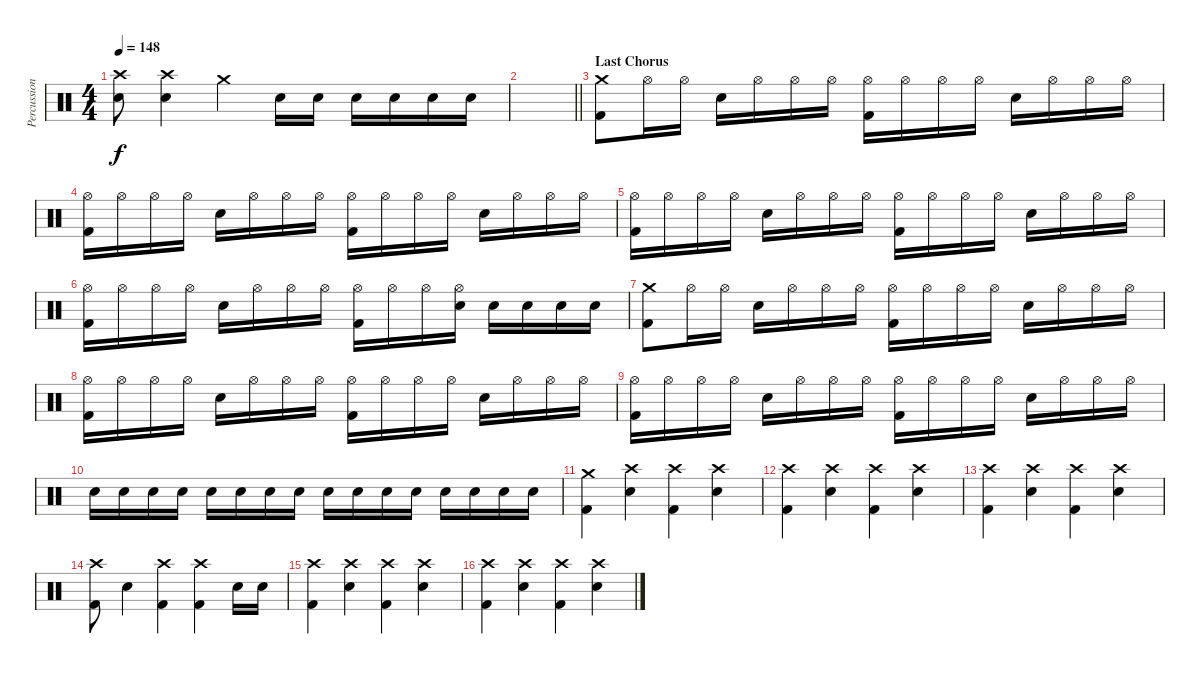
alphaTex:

\track ("Percussion" "Percussion") {instrument percussion}
\staff {score}
\articulation defaults
\ts (4 4)
\tempo 148
\clef neutral
\ks c
("Crash high (hit)" "Snare (hit) 2").8{dy f} ("Crash high (hit)" "Snare (hit) 2").4 "Crash medium (hit)".4 "Snare (hit) 2".16 "Snare (hit) 2".16 "Snare (hit) 2".16 "Snare (hit) 2".16 "Snare (hit) 2".16 "Snare (hit) 2".16 |
\barLineRight lightlight
|
\section ("" "Last Chorus")
("Crash medium (hit)" "Kick (hit) 2").8 "Hi-Hat (open)".16 "Hi-Hat (open)".16 "Snare (hit) 2".16 "Hi-Hat (open)".16 "Hi-Hat (open)".16 "Hi-Hat (open)".16 ("Hi-Hat (open)" "Kick (hit) 2").16 "Hi-Hat (open)".16 "Hi-Hat (open)".16 "Hi-Hat (open)".16 "Snare (hit) 2".16 "Hi-Hat (open)".16 "Hi-Hat (open)".16 "Hi-Hat (open)".16 |
("Hi-Hat (open)" "Kick (hit) 2").16 "Hi-Hat (open)".16 "Hi-Hat (open)".16 "Hi-Hat (open)".16 "Snare (hit) 2".16 "Hi-Hat (open)".16 "Hi-Hat (open)".16 "Hi-Hat (open)".16 ("Hi-Hat (open)" "Kick (hit) 2").16 "Hi-Hat (open)".16 "Hi-Hat (open)".16 "Hi-Hat (open)".16 "Snare (hit) 2".16 "Hi-Hat (open)".16 "Hi-Hat (open)".16 "Hi-Hat (open)".16 |
("Hi-Hat (open)" "Kick (hit) 2").16 "Hi-Hat (open)".16 "Hi-Hat (open)".16 "Hi-Hat (open)".16 "Snare (hit) 2".16 "Hi-Hat (open)".16 "Hi-Hat (open)".16 "Hi-Hat (open)".16 ("Hi-Hat (open)" "Kick (hit) 2").16 "Hi-Hat (open)".16 "Hi-Hat (open)".16 "Hi-Hat (open)".16 "Snare (hit) 2".16 "Hi-Hat (open)".16 "Hi-Hat (open)".16 "Hi-Hat (open)".16 |
("Hi-Hat (open)" "Kick (hit) 2").16 "Hi-Hat (open)".16 "Hi-Hat (open)".16 "Hi-Hat (open)".16 "Snare (hit) 2".16 "Hi-Hat (open)".16 "Hi-Hat (open)".16 "Hi-Hat (open)".16 ("Hi-Hat (open)" "Kick (hit) 2").16 "Hi-Hat (open)".16 "Hi-Hat (open)".16 ("Hi-Hat (open)" "Snare (hit) 2").16 "Snare (hit) 2".16 "Snare (hit) 2".16 "Snare (hit) 2".16 "Snare (hit) 2".16 |
("Crash medium (hit)" "Kick (hit) 2").8 "Hi-Hat (open)".16 "Hi-Hat (open)".16 "Snare (hit) 2".16 "Hi-Hat (open)".16 "Hi-Hat (open)".16 "Hi-Hat (open)".16 ("Hi-Hat (open)" "Kick (hit) 2").16 "Hi-Hat (open)".16 "Hi-Hat (open)".16 "Hi-Hat (open)".16 "Snare (hit) 2".16 "Hi-Hat (open)".16 "Hi-Hat (open)".16 "Hi-Hat (open)".16 |
("Hi-Hat (open)" "Kick (hit) 2").16 "Hi-Hat (open)".16 "Hi-Hat (open)".16 "Hi-Hat (open)".16 "Snare (hit) 2".16 "Hi-Hat (open)".16 "Hi-Hat (open)".16 "Hi-Hat (open)".16 ("Hi-Hat (open)" "Kick (hit) 2").16 "Hi-Hat (open)".16 "Hi-Hat (open)".16 "Hi-Hat (open)".16 "Snare (hit) 2".16 "Hi-Hat (open)".16 "Hi-Hat (open)".16 "Hi-Hat (open)".16 |
("Hi-Hat (open)" "Kick (hit) 2").16 "Hi-Hat (open)".16 "Hi-Hat (open)".16 "Hi-Hat (open)".16 "Snare (hit) 2".16 "Hi-Hat (open)".16 "Hi-Hat (open)".16 "Hi-Hat (open)".16 ("Hi-Hat (open)" "Kick (hit) 2").16 "Hi-Hat (open)".16 "Hi-Hat (open)".16 "Hi-Hat (open)".16 "Snare (hit) 2".16 "Hi-Hat (open)".16 "Hi-Hat (open)".16 "Hi-Hat (open)".16 |
"Snare (hit) 2".16 "Snare (hit) 2".16 "Snare (hit) 2".16 "Snare (hit) 2".16 "Snare (hit) 2".16 "Snare (hit) 2".16 "Snare (hit) 2".16 "Snare (hit) 2".16 "Snare (hit) 2".16 "Snare (hit) 2".16 "Snare (hit) 2".16 "Snare (hit) 2".16 "Snare (hit) 2".16 "Snare (hit) 2".16 "Snare (hit) 2".16 "Snare (hit) 2".16 |
("Crash medium (hit)" "Kick (hit) 2").4 ("Crash high (hit)" "Snare (hit) 2").4 ("Crash high (hit)" "Kick (hit) 2").4 ("Crash high (hit)" "Snare (hit) 2").4 |
("Crash high (hit)" "Kick (hit) 2").4 ("Crash high (hit)" "Snare (hit) 2").4 ("Crash high (hit)" "Kick (hit) 2").4 ("Crash high (hit)" "Snare (hit) 2").4 |
("Crash high (hit)" "Kick (hit) 2").4 ("Crash high (hit)" "Snare (hit) 2").4 ("Crash high (hit)" "Kick (hit) 2").4 ("Crash high (hit)" "Snare (hit) 2").4 |
("Crash high (hit)" "Kick (hit) 2").8 "Snare (hit) 2".4 ("Crash high (hit)" "Kick (hit) 2").4 ("Crash high (hit)" "Kick (hit) 2").4 "Snare (hit) 2".16 "Snare (hit) 2".16 |
("Crash high (hit)" "Kick (hit) 2").4 ("Crash high (hit)" "Snare (hit) 2").4 ("Crash high (hit)" "Kick (hit) 2").4 ("Crash high (hit)" "Snare (hit) 2").4 |
("Crash high (hit)" "Kick (hit) 2").4 ("Crash high (hit)" "Snare (hit) 2").4 ("Crash high (hit)" "Kick (hit) 2").4 ("Crash high (hit)" "Snare (hit) 2").4
